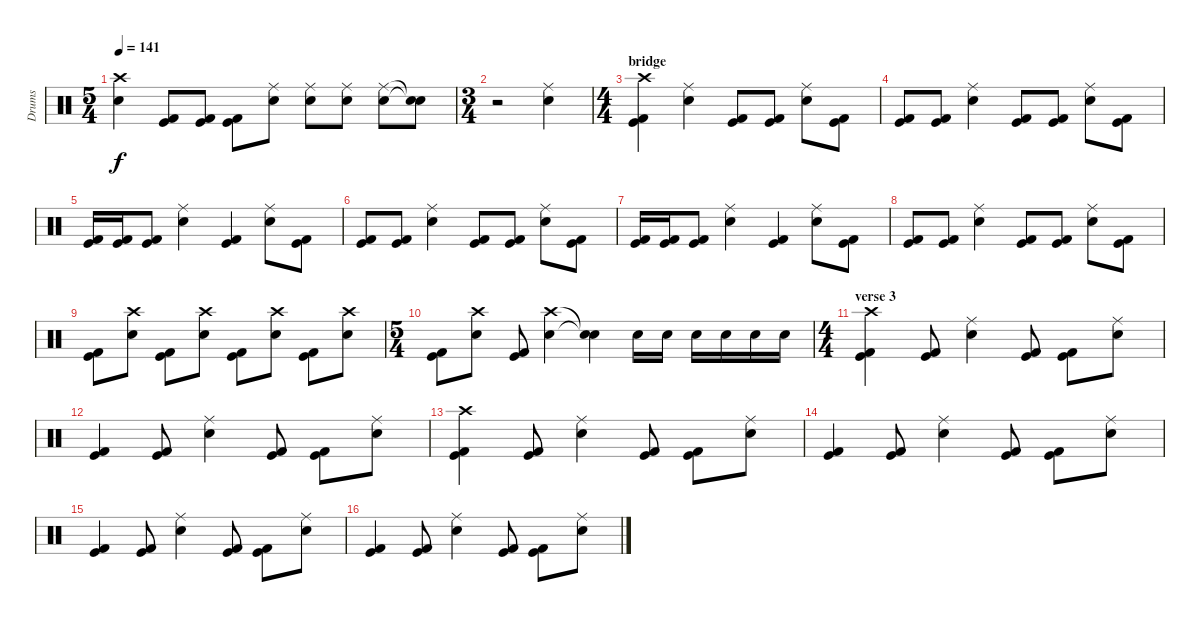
\track ("Drums" "Drums") {instrument percussion}
\staff {score}
\articulation defaults
\ts (5 4)
\tempo 141
\clef neutral
\ks c
("Crash high (hit)" "Electric Snare (hit)").4{dy f} ("Kick (hit)" "Kick (hit) 2").8 ("Kick (hit)" "Kick (hit) 2").8 ("Kick (hit)" "Kick (hit) 2").8 ("Ride (middle)" "Electric Snare (hit)").8 ("Ride (middle)" "Electric Snare (hit)").8 ("Ride (middle)" "Electric Snare (hit)").8 ("Ride (middle)" "Electric Snare (hit)").8 ("Snare (hit)"{t} "Snare (hit)"{t}).8 |
\ts (3 4)
r.2 ("Ride (middle)" "Electric Snare (hit)").4 |
\ts (4 4)
\section ("" "bridge")
("Crash high (hit)" "Kick (hit)" "Kick (hit) 2").4 ("Ride (middle)" "Electric Snare (hit)").4 ("Kick (hit)" "Kick (hit) 2").8 ("Kick (hit)" "Kick (hit) 2").8 ("Ride (middle)" "Electric Snare (hit)").8 ("Kick (hit)" "Kick (hit) 2").8 |
("Kick (hit)" "Kick (hit) 2").8 ("Kick (hit)" "Kick (hit) 2").8 ("Ride (middle)" "Electric Snare (hit)").4 ("Kick (hit)" "Kick (hit) 2").8 ("Kick (hit)" "Kick (hit) 2").8 ("Ride (middle)" "Electric Snare (hit)").8 ("Kick (hit)" "Kick (hit) 2").8 |
("Kick (hit)" "Kick (hit) 2").16 ("Kick (hit)" "Kick (hit) 2").16 ("Kick (hit)" "Kick (hit) 2").8 ("Ride (middle)" "Electric Snare (hit)").4 ("Kick (hit)" "Kick (hit) 2").4 ("Ride (middle)" "Electric Snare (hit)").8 ("Kick (hit)" "Kick (hit) 2").8 |
("Kick (hit)" "Kick (hit) 2").8 ("Kick (hit)" "Kick (hit) 2").8 ("Ride (middle)" "Electric Snare (hit)").4 ("Kick (hit)" "Kick (hit) 2").8 ("Kick (hit)" "Kick (hit) 2").8 ("Ride (middle)" "Electric Snare (hit)").8 ("Kick (hit)" "Kick (hit) 2").8 |
("Kick (hit)" "Kick (hit) 2").16 ("Kick (hit)" "Kick (hit) 2").16 ("Kick (hit)" "Kick (hit) 2").8 ("Ride (middle)" "Electric Snare (hit)").4 ("Kick (hit)" "Kick (hit) 2").4 ("Ride (middle)" "Electric Snare (hit)").8 ("Kick (hit)" "Kick (hit) 2").8 |
("Kick (hit)" "Kick (hit) 2").8 ("Kick (hit)" "Kick (hit) 2").8 ("Ride (middle)" "Electric Snare (hit)").4 ("Kick (hit)" "Kick (hit) 2").8 ("Kick (hit)" "Kick (hit) 2").8 ("Ride (middle)" "Electric Snare (hit)").8 ("Kick (hit)" "Kick (hit) 2").8 |
("Kick (hit)" "Kick (hit) 2").8 ("Crash high (hit)" "Electric Snare (hit)").8 ("Kick (hit)" "Kick (hit) 2").8 ("Crash high (hit)" "Electric Snare (hit)").8 ("Kick (hit)" "Kick (hit) 2").8 ("Crash high (hit)" "Electric Snare (hit)").8 ("Kick (hit)" "Kick (hit) 2").8 ("Crash high (hit)" "Electric Snare (hit)").8 |
\ts (5 4)
("Kick (hit)" "Kick (hit) 2").8 ("Crash high (hit)" "Electric Snare (hit)").8 ("Kick (hit)" "Kick (hit) 2").8 ("Crash high (hit)" "Electric Snare (hit)").4 ("Snare (hit)"{t} "Electric Snare (hit)"{t}).4 "Electric Snare (hit)".16 "Electric Snare (hit)".16 "Electric Snare (hit)".16 "Electric Snare (hit)".16 "Electric Snare (hit)".16 "Electric Snare (hit)".16 |
\ts (4 4)
\section ("" "verse 3")
("Crash high (hit)" "Kick (hit)" "Kick (hit) 2").4 ("Kick (hit)" "Kick (hit) 2").8 ("Ride (middle)" "Electric Snare (hit)").4 ("Kick (hit)" "Kick (hit) 2").8 ("Kick (hit)" "Kick (hit) 2").8 ("Ride (middle)" "Electric Snare (hit)").8 |
("Kick (hit)" "Kick (hit) 2").4 ("Kick (hit)" "Kick (hit) 2").8 ("Ride (middle)" "Electric Snare (hit)").4 ("Kick (hit)" "Kick (hit) 2").8 ("Kick (hit)" "Kick (hit) 2").8 ("Ride (middle)" "Electric Snare (hit)").8 |
("Crash high (hit)" "Kick (hit)" "Kick (hit) 2").4 ("Kick (hit)" "Kick (hit) 2").8 ("Ride (middle)" "Electric Snare (hit)").4 ("Kick (hit)" "Kick (hit) 2").8 ("Kick (hit)" "Kick (hit) 2").8 ("Ride (middle)" "Electric Snare (hit)").8 |
("Kick (hit)" "Kick (hit) 2").4 ("Kick (hit)" "Kick (hit) 2").8 ("Ride (middle)" "Electric Snare (hit)").4 ("Kick (hit)" "Kick (hit) 2").8 ("Kick (hit)" "Kick (hit) 2").8 ("Ride (middle)" "Electric Snare (hit)").8 |
("Kick (hit)" "Kick (hit) 2").4 ("Kick (hit)" "Kick (hit) 2").8 ("Ride (middle)" "Electric Snare (hit)").4 ("Kick (hit)" "Kick (hit) 2").8 ("Kick (hit)" "Kick (hit) 2").8 ("Ride (middle)" "Electric Snare (hit)").8 |
("Kick (hit)" "Kick (hit) 2").4 ("Kick (hit)" "Kick (hit) 2").8 ("Ride (middle)" "Electric Snare (hit)").4 ("Kick (hit)" "Kick (hit) 2").8 ("Kick (hit)" "Kick (hit) 2").8 ("Ride (middle)" "Electric Snare (hit)").8
